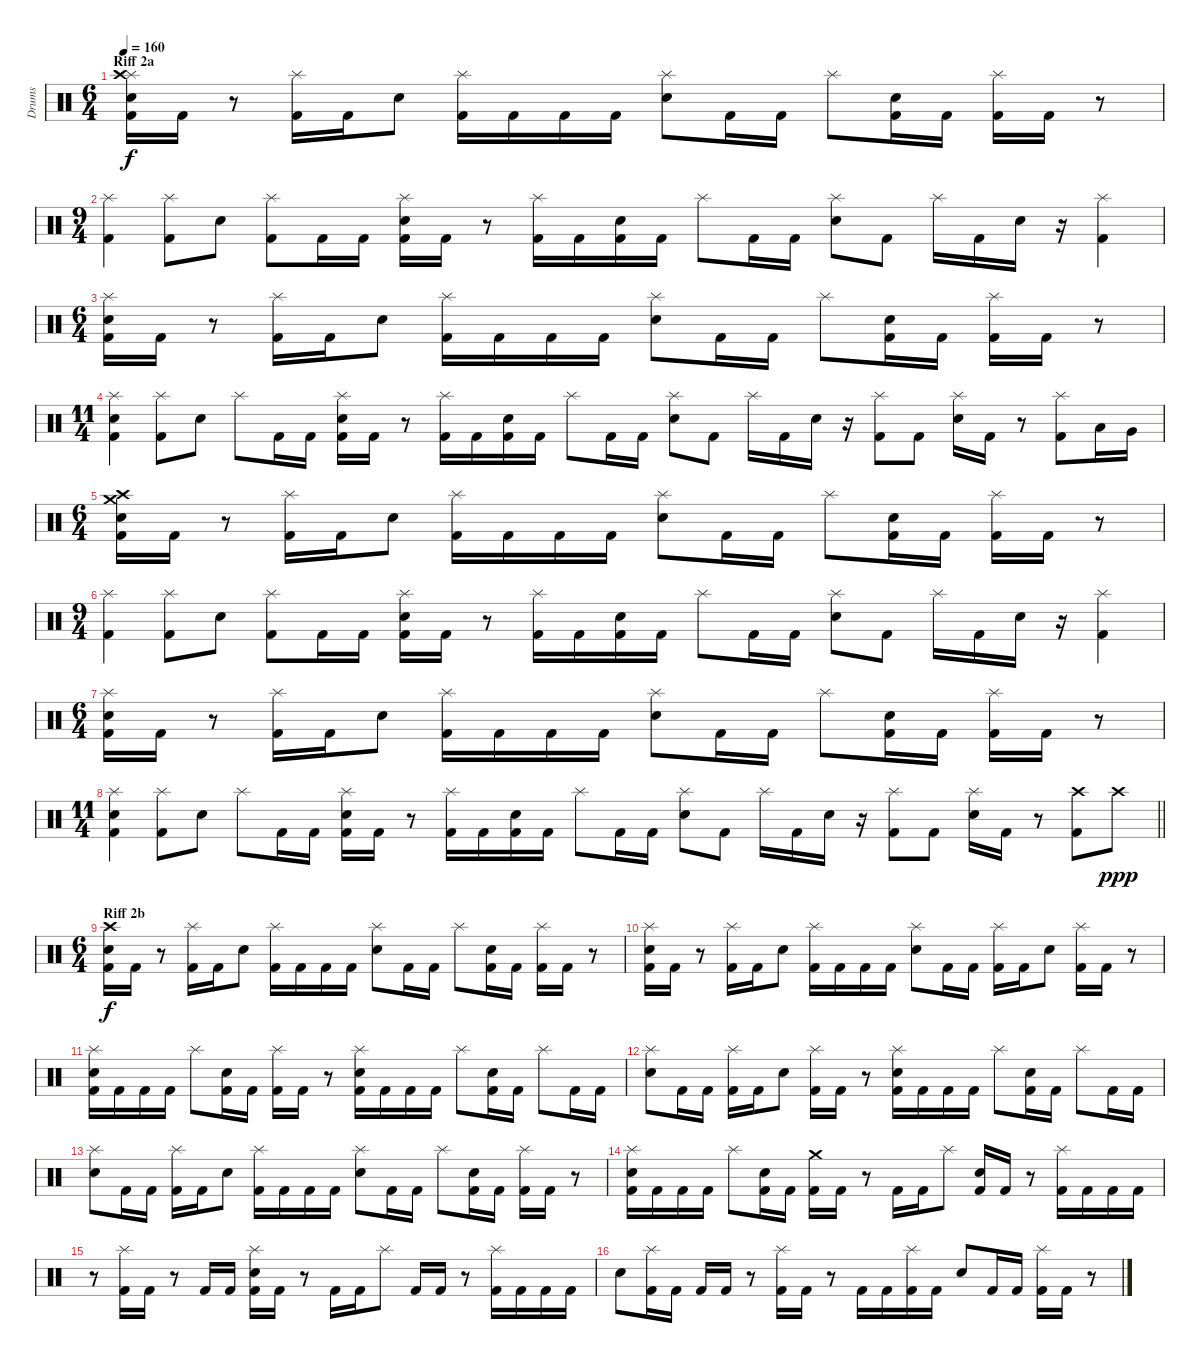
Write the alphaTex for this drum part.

\track ("Drums" "Drums") {instrument percussion}
\staff {score}
\articulation defaults
\ts (6 4)
\section ("" "Riff 2a")
\tempo 160
\clef neutral
\ks c
("Splash (hit)" "Crash high (hit)" "Snare (hit) 2" "Kick (hit) 2").16{dy f} "Kick (hit) 2".16 r.8 ("Splash (hit)" "Kick (hit) 2").16 "Kick (hit) 2".16 "Snare (hit) 2".8 ("Splash (hit)" "Kick (hit) 2").16 "Kick (hit) 2".16 "Kick (hit) 2".16 "Kick (hit) 2".16 ("Splash (hit)" "Snare (hit) 2").8 "Kick (hit) 2".16 "Kick (hit) 2".16 "Splash (hit)".8 ("Snare (hit) 2" "Kick (hit) 2").16 "Kick (hit) 2".16 ("Splash (hit)" "Kick (hit) 2").16 "Kick (hit) 2".16 r.8 |
\ts (9 4)
("Splash (hit)" "Kick (hit) 2").4 ("Splash (hit)" "Kick (hit) 2").8 "Snare (hit) 2".8 ("Splash (hit)" "Kick (hit) 2").8 "Kick (hit) 2".16 "Kick (hit) 2".16 ("Splash (hit)" "Snare (hit) 2" "Kick (hit) 2").16 "Kick (hit) 2".16 r.8 ("Splash (hit)" "Kick (hit) 2").16 "Kick (hit) 2".16 ("Snare (hit) 2" "Kick (hit) 2").16 "Kick (hit) 2".16 "Splash (hit)".8 "Kick (hit) 2".16 "Kick (hit) 2".16 ("Splash (hit)" "Snare (hit) 2").8 "Kick (hit) 2".8 "Splash (hit)".16 "Kick (hit) 2".16 "Snare (hit) 2".16 r.16 ("Splash (hit)" "Kick (hit) 2").4 |
\ts (6 4)
("Splash (hit)" "Snare (hit) 2" "Kick (hit) 2").16 "Kick (hit) 2".16 r.8 ("Splash (hit)" "Kick (hit) 2").16 "Kick (hit) 2".16 "Snare (hit) 2".8 ("Splash (hit)" "Kick (hit) 2").16 "Kick (hit) 2".16 "Kick (hit) 2".16 "Kick (hit) 2".16 ("Splash (hit)" "Snare (hit) 2").8 "Kick (hit) 2".16 "Kick (hit) 2".16 "Splash (hit)".8 ("Snare (hit) 2" "Kick (hit) 2").16 "Kick (hit) 2".16 ("Splash (hit)" "Kick (hit) 2").16 "Kick (hit) 2".16 r.8 |
\ts (11 4)
("Splash (hit)" "Snare (hit) 2" "Kick (hit) 2").4 ("Splash (hit)" "Kick (hit) 2").8 "Snare (hit) 2".8 "Splash (hit)".8 "Kick (hit) 2".16 "Kick (hit) 2".16 ("Splash (hit)" "Snare (hit) 2" "Kick (hit) 2").16 "Kick (hit) 2".16 r.8 ("Splash (hit)" "Kick (hit) 2").16 "Kick (hit) 2".16 ("Snare (hit) 2" "Kick (hit) 2").16 "Kick (hit) 2".16 "Splash (hit)".8 "Kick (hit) 2".16 "Kick (hit) 2".16 ("Splash (hit)" "Snare (hit) 2").8 "Kick (hit) 2".8 "Splash (hit)".16 "Kick (hit) 2".16 "Snare (hit) 2".16 r.16 ("Splash (hit)" "Kick (hit) 2").8 "Kick (hit) 2".8 ("Splash (hit)" "Snare (hit) 2").16 "Kick (hit) 2".16 r.8 ("Splash (hit)" "Kick (hit) 2").8 "Low Tom (hit)".16 "Very Low Tom (hit)".16 |
\ts (6 4)
("Crash medium (hit)" "Crash high (hit)" "Snare (hit) 2" "Kick (hit) 2").16 "Kick (hit) 2".16 r.8 ("Splash (hit)" "Kick (hit) 2").16 "Kick (hit) 2".16 "Snare (hit) 2".8 ("Splash (hit)" "Kick (hit) 2").16 "Kick (hit) 2".16 "Kick (hit) 2".16 "Kick (hit) 2".16 ("Splash (hit)" "Snare (hit) 2").8 "Kick (hit) 2".16 "Kick (hit) 2".16 "Splash (hit)".8 ("Snare (hit) 2" "Kick (hit) 2").16 "Kick (hit) 2".16 ("Splash (hit)" "Kick (hit) 2").16 "Kick (hit) 2".16 r.8 |
\ts (9 4)
("Splash (hit)" "Kick (hit) 2").4 ("Splash (hit)" "Kick (hit) 2").8 "Snare (hit) 2".8 ("Splash (hit)" "Kick (hit) 2").8 "Kick (hit) 2".16 "Kick (hit) 2".16 ("Splash (hit)" "Snare (hit) 2" "Kick (hit) 2").16 "Kick (hit) 2".16 r.8 ("Splash (hit)" "Kick (hit) 2").16 "Kick (hit) 2".16 ("Snare (hit) 2" "Kick (hit) 2").16 "Kick (hit) 2".16 "Splash (hit)".8 "Kick (hit) 2".16 "Kick (hit) 2".16 ("Splash (hit)" "Snare (hit) 2").8 "Kick (hit) 2".8 "Splash (hit)".16 "Kick (hit) 2".16 "Snare (hit) 2".16 r.16 ("Splash (hit)" "Kick (hit) 2").4 |
\ts (6 4)
("Splash (hit)" "Snare (hit) 2" "Kick (hit) 2").16 "Kick (hit) 2".16 r.8 ("Splash (hit)" "Kick (hit) 2").16 "Kick (hit) 2".16 "Snare (hit) 2".8 ("Splash (hit)" "Kick (hit) 2").16 "Kick (hit) 2".16 "Kick (hit) 2".16 "Kick (hit) 2".16 ("Splash (hit)" "Snare (hit) 2").8 "Kick (hit) 2".16 "Kick (hit) 2".16 "Splash (hit)".8 ("Snare (hit) 2" "Kick (hit) 2").16 "Kick (hit) 2".16 ("Splash (hit)" "Kick (hit) 2").16 "Kick (hit) 2".16 r.8 |
\ts (11 4)
\barLineRight lightlight
("Splash (hit)" "Snare (hit) 2" "Kick (hit) 2").4 ("Splash (hit)" "Kick (hit) 2").8 "Snare (hit) 2".8 "Splash (hit)".8 "Kick (hit) 2".16 "Kick (hit) 2".16 ("Splash (hit)" "Snare (hit) 2" "Kick (hit) 2").16 "Kick (hit) 2".16 r.8 ("Splash (hit)" "Kick (hit) 2").16 "Kick (hit) 2".16 ("Snare (hit) 2" "Kick (hit) 2").16 "Kick (hit) 2".16 "Splash (hit)".8 "Kick (hit) 2".16 "Kick (hit) 2".16 ("Splash (hit)" "Snare (hit) 2").8 "Kick (hit) 2".8 "Splash (hit)".16 "Kick (hit) 2".16 "Snare (hit) 2".16 r.16 ("Splash (hit)" "Kick (hit) 2").8 "Kick (hit) 2".8 ("Splash (hit)" "Snare (hit) 2").16 "Kick (hit) 2".16 r.8 ("Crash high (hit)" "Kick (hit) 2").8 "Crash high (hit)".8{dy ppp} |
\ts (6 4)
\section ("" "Riff 2b")
("Crash high (hit)" "Snare (hit) 2" "Kick (hit) 2").16{dy f} "Kick (hit) 2".16 r.8 ("Splash (hit)" "Kick (hit) 2").16 "Kick (hit) 2".16 "Snare (hit) 2".8 ("Splash (hit)" "Kick (hit) 2").16 "Kick (hit) 2".16 "Kick (hit) 2".16 "Kick (hit) 2".16 ("Splash (hit)" "Snare (hit) 2").8 "Kick (hit) 2".16 "Kick (hit) 2".16 "Splash (hit)".8 ("Snare (hit) 2" "Kick (hit) 2").16 "Kick (hit) 2".16 ("Splash (hit)" "Kick (hit) 2").16 "Kick (hit) 2".16 r.8 |
("Splash (hit)" "Snare (hit) 2" "Kick (hit) 2").16 "Kick (hit) 2".16 r.8 ("Splash (hit)" "Kick (hit) 2").16 "Kick (hit) 2".16 "Snare (hit) 2".8 ("Splash (hit)" "Kick (hit) 2").16 "Kick (hit) 2".16 "Kick (hit) 2".16 "Kick (hit) 2".16 ("Splash (hit)" "Snare (hit) 2").8 "Kick (hit) 2".16 "Kick (hit) 2".16 ("Splash (hit)" "Kick (hit) 2").16 "Kick (hit) 2".16 "Snare (hit) 2".8 ("Splash (hit)" "Kick (hit) 2").16 "Kick (hit) 2".16 r.8 |
("Splash (hit)" "Snare (hit) 2" "Kick (hit) 2").16 "Kick (hit) 2".16 "Kick (hit) 2".16 "Kick (hit) 2".16 "Splash (hit)".8 ("Snare (hit) 2" "Kick (hit) 2").16 "Kick (hit) 2".16 ("Splash (hit)" "Kick (hit) 2").16 "Kick (hit) 2".16 r.8 ("Splash (hit)" "Snare (hit) 2" "Kick (hit) 2").16 "Kick (hit) 2".16 "Kick (hit) 2".16 "Kick (hit) 2".16 "Splash (hit)".8 ("Snare (hit) 2" "Kick (hit) 2").16 "Kick (hit) 2".16 "Splash (hit)".8 "Kick (hit) 2".16 "Kick (hit) 2".16 |
("Splash (hit)" "Snare (hit) 2").8 "Kick (hit) 2".16 "Kick (hit) 2".16 ("Splash (hit)" "Kick (hit) 2").16 "Kick (hit) 2".16 "Snare (hit) 2".8 ("Splash (hit)" "Kick (hit) 2").16 "Kick (hit) 2".16 r.8 ("Splash (hit)" "Snare (hit) 2" "Kick (hit) 2").16 "Kick (hit) 2".16 "Kick (hit) 2".16 "Kick (hit) 2".16 "Splash (hit)".8 ("Snare (hit) 2" "Kick (hit) 2").16 "Kick (hit) 2".16 "Splash (hit)".8 "Kick (hit) 2".16 "Kick (hit) 2".16 |
("Splash (hit)" "Snare (hit) 2").8 "Kick (hit) 2".16 "Kick (hit) 2".16 ("Splash (hit)" "Kick (hit) 2").16 "Kick (hit) 2".16 "Snare (hit) 2".8 ("Splash (hit)" "Kick (hit) 2").16 "Kick (hit) 2".16 "Kick (hit) 2".16 "Kick (hit) 2".16 ("Splash (hit)" "Snare (hit) 2").8 "Kick (hit) 2".16 "Kick (hit) 2".16 "Splash (hit)".8 ("Snare (hit) 2" "Kick (hit) 2").16 "Kick (hit) 2".16 ("Splash (hit)" "Kick (hit) 2").16 "Kick (hit) 2".16 r.8 |
("Splash (hit)" "Snare (hit) 2" "Kick (hit) 2").16 "Kick (hit) 2".16 "Kick (hit) 2".16 "Kick (hit) 2".16 "Splash (hit)".8 ("Snare (hit) 2" "Kick (hit) 2").16 "Kick (hit) 2".16 ("Crash medium (hit)" "Kick (hit) 2").16 "Kick (hit) 2".16 r.8 "Kick (hit) 2".16 "Kick (hit) 2".16 "Splash (hit)".8 ("Snare (hit) 2" "Kick (hit) 2").16 "Kick (hit) 2".16 r.8 ("Splash (hit)" "Kick (hit) 2").16 "Kick (hit) 2".16 "Kick (hit) 2".16 "Kick (hit) 2".16 |
r.8 ("Splash (hit)" "Kick (hit) 2").16 "Kick (hit) 2".16 r.8 "Kick (hit) 2".16 "Kick (hit) 2".16 ("Splash (hit)" "Snare (hit) 2" "Kick (hit) 2").16 "Kick (hit) 2".16 r.8 "Kick (hit) 2".16 "Kick (hit) 2".16 "Splash (hit)".8 "Kick (hit) 2".16 "Kick (hit) 2".16 r.8 ("Splash (hit)" "Kick (hit) 2").16 "Kick (hit) 2".16 "Kick (hit) 2".16 "Kick (hit) 2".16 |
"Snare (hit) 2".8 ("Splash (hit)" "Kick (hit) 2").16 "Kick (hit) 2".16 "Kick (hit) 2".16 "Kick (hit) 2".16 r.8 ("Splash (hit)" "Kick (hit) 2").16 "Kick (hit) 2".16 r.8 "Kick (hit) 2".16 "Kick (hit) 2".16 ("Splash (hit)" "Kick (hit) 2").16 "Kick (hit) 2".16 "Snare (hit) 2".8 "Kick (hit) 2".16 "Kick (hit) 2".16 ("Splash (hit)" "Kick (hit) 2").16 "Kick (hit) 2".16 r.8
